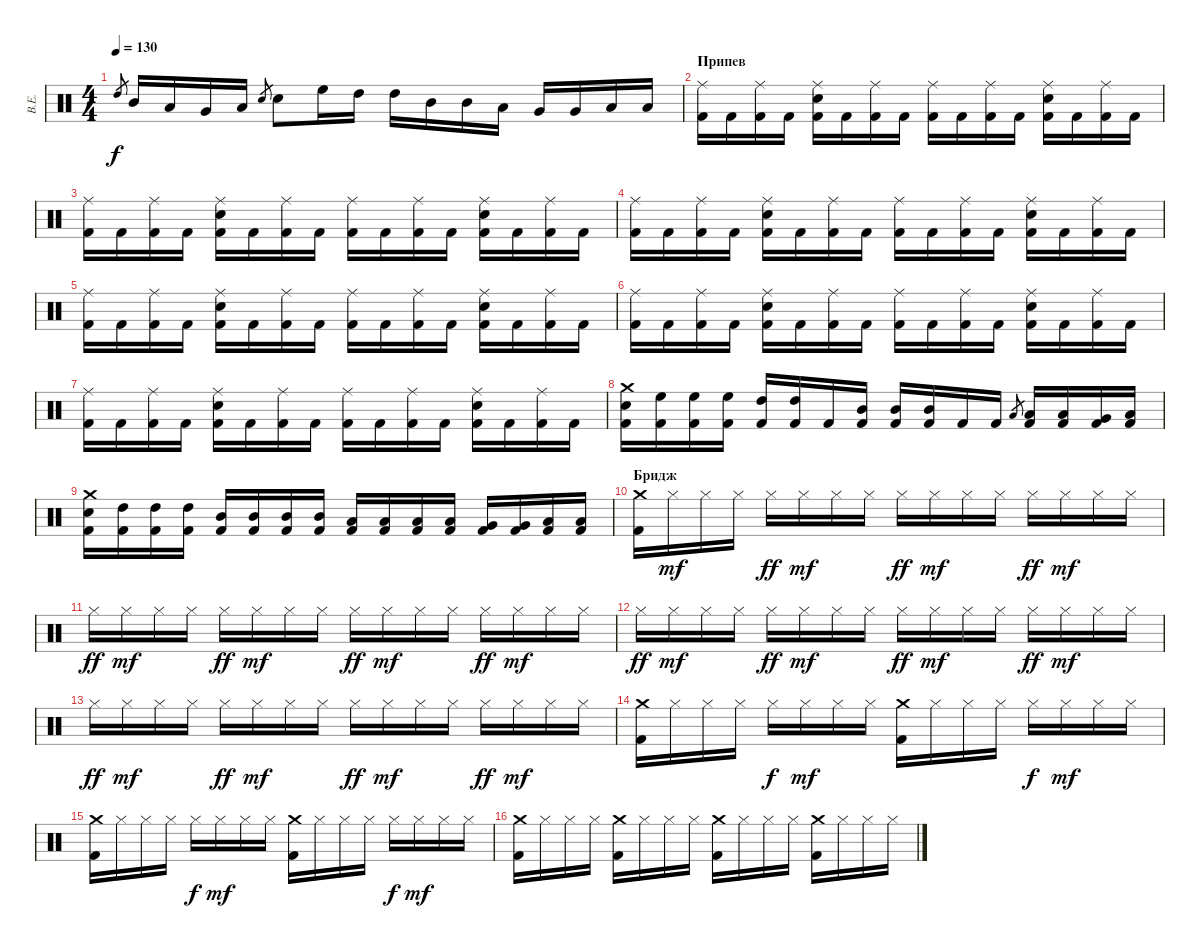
\track ("В.Е." "В.Е.") {instrument percussion}
\staff {score}
\articulation defaults
\ts (4 4)
\tempo 130
\clef neutral
\ks c "High Tom (hit)".8{gr dy f} "Mid Tom (hit)".16 "Low Tom (hit)".16 "Very Low Tom (hit)".16 "Low Tom (hit)".16 "Electric Snare (hit)".8{gr} "Electric Snare (hit)".8 "High Floor Tom (hit)".16 "High Tom (hit)".16 "High Tom (hit)".16 "Mid Tom (hit)".16 "Mid Tom (hit)".16 "Low Tom (hit)".16 "Very Low Tom (hit)".16 "Very Low Tom (hit)".16 "Low Floor Tom (hit)".16 "Low Floor Tom (hit)".16
|
\section ("" "Припев")
("Ride (middle)" "Kick (hit) 2").16 "Kick (hit) 2".16 ("Ride (middle)" "Kick (hit) 2").16 "Kick (hit) 2".16 ("Ride (middle)" "Kick (hit) 2" "Electric Snare (hit)").16 "Kick (hit) 2".16 ("Ride (middle)" "Kick (hit) 2").16 "Kick (hit) 2".16 ("Ride (middle)" "Kick (hit) 2").16 "Kick (hit) 2".16 ("Ride (middle)" "Kick (hit) 2").16 "Kick (hit) 2".16 ("Ride (middle)" "Kick (hit) 2" "Electric Snare (hit)").16 "Kick (hit) 2".16 ("Ride (middle)" "Kick (hit) 2").16 "Kick (hit) 2".16 |
("Ride (middle)" "Kick (hit) 2").16 "Kick (hit) 2".16 ("Ride (middle)" "Kick (hit) 2").16 "Kick (hit) 2".16 ("Ride (middle)" "Kick (hit) 2" "Electric Snare (hit)").16 "Kick (hit) 2".16 ("Ride (middle)" "Kick (hit) 2").16 "Kick (hit) 2".16 ("Ride (middle)" "Kick (hit) 2").16 "Kick (hit) 2".16 ("Ride (middle)" "Kick (hit) 2").16 "Kick (hit) 2".16 ("Ride (middle)" "Kick (hit) 2" "Electric Snare (hit)").16 "Kick (hit) 2".16 ("Ride (middle)" "Kick (hit) 2").16 "Kick (hit) 2".16 |
("Ride (middle)" "Kick (hit) 2").16 "Kick (hit) 2".16 ("Ride (middle)" "Kick (hit) 2").16 "Kick (hit) 2".16 ("Ride (middle)" "Kick (hit) 2" "Electric Snare (hit)").16 "Kick (hit) 2".16 ("Ride (middle)" "Kick (hit) 2").16 "Kick (hit) 2".16 ("Ride (middle)" "Kick (hit) 2").16 "Kick (hit) 2".16 ("Ride (middle)" "Kick (hit) 2").16 "Kick (hit) 2".16 ("Ride (middle)" "Kick (hit) 2" "Electric Snare (hit)").16 "Kick (hit) 2".16 ("Ride (middle)" "Kick (hit) 2").16 "Kick (hit) 2".16 |
("Ride (middle)" "Kick (hit) 2").16 "Kick (hit) 2".16 ("Ride (middle)" "Kick (hit) 2").16 "Kick (hit) 2".16 ("Ride (middle)" "Kick (hit) 2" "Electric Snare (hit)").16 "Kick (hit) 2".16 ("Ride (middle)" "Kick (hit) 2").16 "Kick (hit) 2".16 ("Ride (middle)" "Kick (hit) 2").16 "Kick (hit) 2".16 ("Ride (middle)" "Kick (hit) 2").16 "Kick (hit) 2".16 ("Ride (middle)" "Kick (hit) 2" "Electric Snare (hit)").16 "Kick (hit) 2".16 ("Ride (middle)" "Kick (hit) 2").16 "Kick (hit) 2".16 |
("Ride (middle)" "Kick (hit) 2").16 "Kick (hit) 2".16 ("Ride (middle)" "Kick (hit) 2").16 "Kick (hit) 2".16 ("Ride (middle)" "Kick (hit) 2" "Electric Snare (hit)").16 "Kick (hit) 2".16 ("Ride (middle)" "Kick (hit) 2").16 "Kick (hit) 2".16 ("Ride (middle)" "Kick (hit) 2").16 "Kick (hit) 2".16 ("Ride (middle)" "Kick (hit) 2").16 "Kick (hit) 2".16 ("Ride (middle)" "Kick (hit) 2" "Electric Snare (hit)").16 "Kick (hit) 2".16 ("Ride (middle)" "Kick (hit) 2").16 "Kick (hit) 2".16 |
("Ride (middle)" "Kick (hit) 2").16 "Kick (hit) 2".16 ("Ride (middle)" "Kick (hit) 2").16 "Kick (hit) 2".16 ("Ride (middle)" "Kick (hit) 2" "Electric Snare (hit)").16 "Kick (hit) 2".16 ("Ride (middle)" "Kick (hit) 2").16 "Kick (hit) 2".16 ("Ride (middle)" "Kick (hit) 2").16 "Kick (hit) 2".16 ("Ride (middle)" "Kick (hit) 2").16 "Kick (hit) 2".16 ("Ride (middle)" "Kick (hit) 2" "Electric Snare (hit)").16 "Kick (hit) 2".16 ("Ride (middle)" "Kick (hit) 2").16 "Kick (hit) 2".16 |
("Kick (hit) 2" "Electric Snare (hit)" "Crash medium (hit)").16 ("Kick (hit) 2" "High Floor Tom (hit)").16 ("Kick (hit) 2" "High Floor Tom (hit)").16 ("Kick (hit) 2" "High Floor Tom (hit)").16 ("Kick (hit) 2" "High Tom (hit)").16 ("Kick (hit) 2" "High Tom (hit)").16 "Kick (hit) 2".16 ("Kick (hit) 2" "Mid Tom (hit)").16 ("Kick (hit) 2" "Mid Tom (hit)").16 ("Kick (hit) 2" "Mid Tom (hit)").16 "Kick (hit) 2".16 "Kick (hit) 2".16 "Low Tom (hit)".8{gr} ("Kick (hit) 2" "Low Tom (hit)").16 ("Kick (hit) 2" "Low Tom (hit)").16 ("Kick (hit) 2" "Very Low Tom (hit)").16 ("Kick (hit) 2" "Low Floor Tom (hit)").16 |
("Kick (hit) 2" "Electric Snare (hit)" "Crash medium (hit)").16 ("Kick (hit) 2" "High Tom (hit)").16 ("Kick (hit) 2" "High Tom (hit)").16 ("Kick (hit) 2" "High Tom (hit)").16 ("Kick (hit) 2" "Mid Tom (hit)").16 ("Kick (hit) 2" "Mid Tom (hit)").16 ("Kick (hit) 2" "Mid Tom (hit)").16 ("Kick (hit) 2" "Mid Tom (hit)").16 ("Kick (hit) 2" "Low Tom (hit)").16 ("Kick (hit) 2" "Low Tom (hit)").16 ("Kick (hit) 2" "Low Tom (hit)").16 ("Kick (hit) 2" "Low Tom (hit)").16 ("Kick (hit) 2" "Very Low Tom (hit)").16 ("Kick (hit) 2" "Very Low Tom (hit)").16 ("Kick (hit) 2" "Low Floor Tom (hit)").16 ("Kick (hit) 2" "Low Floor Tom (hit)").16 |
\section ("" "Бридж")
("Crash medium (hit)" "Kick (hit) 2").16 "Hi-Hat (closed)".16{dy mf} "Hi-Hat (closed)".16 "Hi-Hat (closed)".16 "Hi-Hat (closed)".16{dy ff} "Hi-Hat (closed)".16{dy mf} "Hi-Hat (closed)".16 "Hi-Hat (closed)".16 "Hi-Hat (closed)".16{dy ff} "Hi-Hat (closed)".16{dy mf} "Hi-Hat (closed)".16 "Hi-Hat (closed)".16 "Hi-Hat (closed)".16{dy ff} "Hi-Hat (closed)".16{dy mf} "Hi-Hat (closed)".16 "Hi-Hat (closed)".16 |
"Hi-Hat (closed)".16{dy ff} "Hi-Hat (closed)".16{dy mf} "Hi-Hat (closed)".16 "Hi-Hat (closed)".16 "Hi-Hat (closed)".16{dy ff} "Hi-Hat (closed)".16{dy mf} "Hi-Hat (closed)".16 "Hi-Hat (closed)".16 "Hi-Hat (closed)".16{dy ff} "Hi-Hat (closed)".16{dy mf} "Hi-Hat (closed)".16 "Hi-Hat (closed)".16 "Hi-Hat (closed)".16{dy ff} "Hi-Hat (closed)".16{dy mf} "Hi-Hat (closed)".16 "Hi-Hat (closed)".16 |
"Hi-Hat (closed)".16{dy ff} "Hi-Hat (closed)".16{dy mf} "Hi-Hat (closed)".16 "Hi-Hat (closed)".16 "Hi-Hat (closed)".16{dy ff} "Hi-Hat (closed)".16{dy mf} "Hi-Hat (closed)".16 "Hi-Hat (closed)".16 "Hi-Hat (closed)".16{dy ff} "Hi-Hat (closed)".16{dy mf} "Hi-Hat (closed)".16 "Hi-Hat (closed)".16 "Hi-Hat (closed)".16{dy ff} "Hi-Hat (closed)".16{dy mf} "Hi-Hat (closed)".16 "Hi-Hat (closed)".16 |
"Hi-Hat (closed)".16{dy ff} "Hi-Hat (closed)".16{dy mf} "Hi-Hat (closed)".16 "Hi-Hat (closed)".16 "Hi-Hat (closed)".16{dy ff} "Hi-Hat (closed)".16{dy mf} "Hi-Hat (closed)".16 "Hi-Hat (closed)".16 "Hi-Hat (closed)".16{dy ff} "Hi-Hat (closed)".16{dy mf} "Hi-Hat (closed)".16 "Hi-Hat (closed)".16 "Hi-Hat (closed)".16{dy ff} "Hi-Hat (closed)".16{dy mf} "Hi-Hat (closed)".16 "Hi-Hat (closed)".16 |
("Crash medium (hit)" "Kick (hit) 2").16 "Hi-Hat (closed)".16 "Hi-Hat (closed)".16 "Hi-Hat (closed)".16 "Hi-Hat (closed)".16{dy f} "Hi-Hat (closed)".16{dy mf} "Hi-Hat (closed)".16 "Hi-Hat (closed)".16 ("Crash medium (hit)" "Kick (hit) 2").16 "Hi-Hat (closed)".16 "Hi-Hat (closed)".16 "Hi-Hat (closed)".16 "Hi-Hat (closed)".16{dy f} "Hi-Hat (closed)".16{dy mf} "Hi-Hat (closed)".16 "Hi-Hat (closed)".16 |
("Crash medium (hit)" "Kick (hit) 2").16 "Hi-Hat (closed)".16 "Hi-Hat (closed)".16 "Hi-Hat (closed)".16 "Hi-Hat (closed)".16{dy f} "Hi-Hat (closed)".16{dy mf} "Hi-Hat (closed)".16 "Hi-Hat (closed)".16 ("Crash medium (hit)" "Kick (hit) 2").16 "Hi-Hat (closed)".16 "Hi-Hat (closed)".16 "Hi-Hat (closed)".16 "Hi-Hat (closed)".16{dy f} "Hi-Hat (closed)".16{dy mf} "Hi-Hat (closed)".16 "Hi-Hat (closed)".16 |
("Crash medium (hit)" "Kick (hit) 2").16 "Hi-Hat (closed)".16 "Hi-Hat (closed)".16 "Hi-Hat (closed)".16 ("Crash medium (hit)" "Kick (hit) 2").16 "Hi-Hat (closed)".16 "Hi-Hat (closed)".16 "Hi-Hat (closed)".16 ("Crash medium (hit)" "Kick (hit) 2").16 "Hi-Hat (closed)".16 "Hi-Hat (closed)".16 "Hi-Hat (closed)".16 ("Crash medium (hit)" "Kick (hit) 2").16 "Hi-Hat (closed)".16 "Hi-Hat (closed)".16 "Hi-Hat (closed)".16
